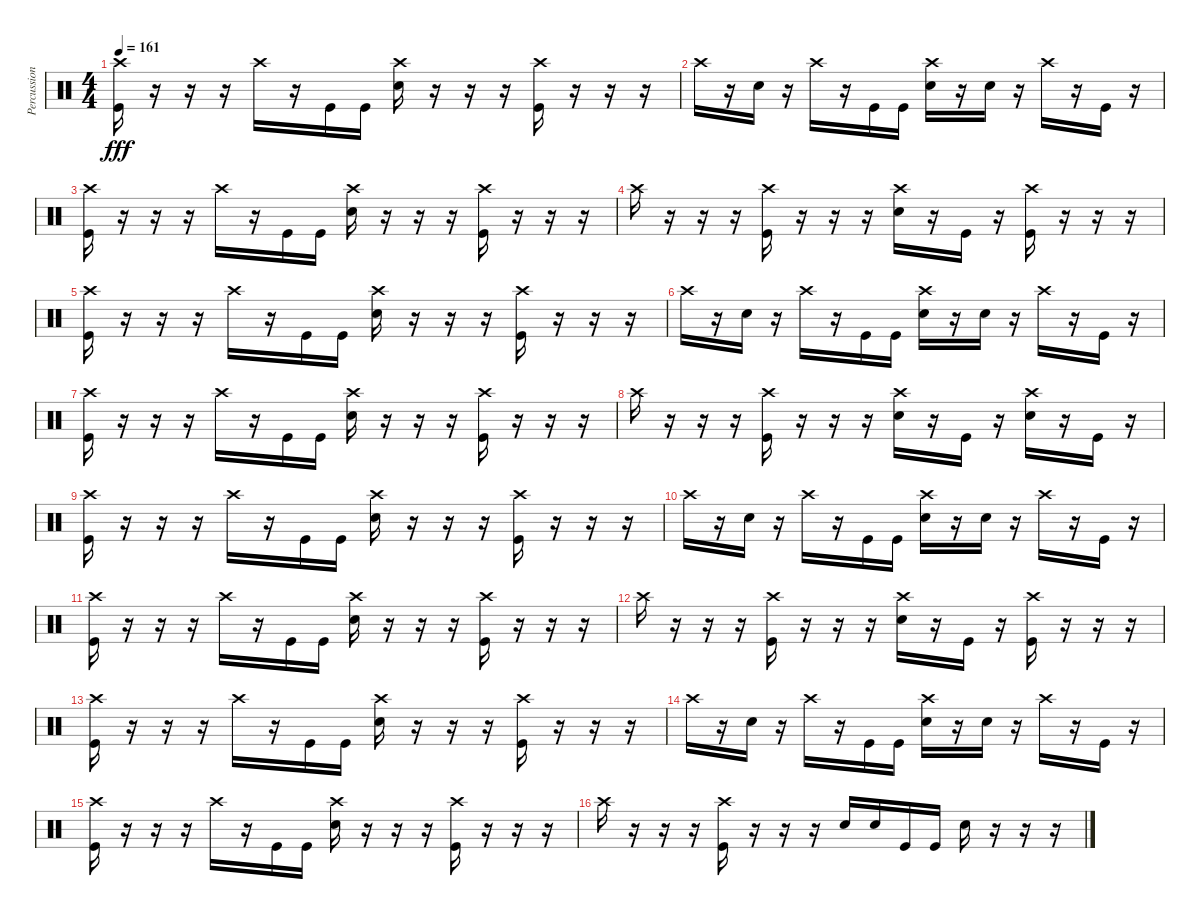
\track ("Percussion" "Percussion") {instrument percussion}
\staff {score}
\articulation defaults
\ts (4 4)
\tempo 161
\clef neutral
\ks c
("Crash high (hit)" "Kick (hit)").16{dy fff} r.16 r.16 r.16 "Crash high (hit)".16 r.16 "Kick (hit)".16 "Kick (hit)".16 ("Crash high (hit)" "Electric Snare (hit)").16 r.16 r.16 r.16 ("Crash high (hit)" "Kick (hit)").16 r.16 r.16 r.16 |
"Crash high (hit)".16 r.16 "Electric Snare (hit)".16 r.16 "Crash high (hit)".16 r.16 "Kick (hit)".16 "Kick (hit)".16 ("Crash high (hit)" "Electric Snare (hit)").16 r.16 "Electric Snare (hit)".16 r.16 "Crash high (hit)".16 r.16 "Kick (hit)".16 r.16 |
("Crash high (hit)" "Kick (hit)").16 r.16 r.16 r.16 "Crash high (hit)".16 r.16 "Kick (hit)".16 "Kick (hit)".16 ("Crash high (hit)" "Electric Snare (hit)").16 r.16 r.16 r.16 ("Crash high (hit)" "Kick (hit)").16 r.16 r.16 r.16 |
"Crash high (hit)".16 r.16 r.16 r.16 ("Crash high (hit)" "Kick (hit)").16 r.16 r.16 r.16 ("Crash high (hit)" "Electric Snare (hit)").16 r.16 "Kick (hit)".16 r.16 ("Crash high (hit)" "Kick (hit)").16 r.16 r.16 r.16 |
("Crash high (hit)" "Kick (hit)").16 r.16 r.16 r.16 "Crash high (hit)".16 r.16 "Kick (hit)".16 "Kick (hit)".16 ("Crash high (hit)" "Electric Snare (hit)").16 r.16 r.16 r.16 ("Crash high (hit)" "Kick (hit)").16 r.16 r.16 r.16 |
"Crash high (hit)".16 r.16 "Electric Snare (hit)".16 r.16 "Crash high (hit)".16 r.16 "Kick (hit)".16 "Kick (hit)".16 ("Crash high (hit)" "Electric Snare (hit)").16 r.16 "Electric Snare (hit)".16 r.16 "Crash high (hit)".16 r.16 "Kick (hit)".16 r.16 |
("Crash high (hit)" "Kick (hit)").16 r.16 r.16 r.16 "Crash high (hit)".16 r.16 "Kick (hit)".16 "Kick (hit)".16 ("Crash high (hit)" "Electric Snare (hit)").16 r.16 r.16 r.16 ("Crash high (hit)" "Kick (hit)").16 r.16 r.16 r.16 |
"Crash high (hit)".16 r.16 r.16 r.16 ("Crash high (hit)" "Kick (hit)").16 r.16 r.16 r.16 ("Crash high (hit)" "Electric Snare (hit)").16 r.16 "Kick (hit)".16 r.16 ("Crash high (hit)" "Electric Snare (hit)").16 r.16 "Kick (hit)".16 r.16 |
("Crash high (hit)" "Kick (hit)").16 r.16 r.16 r.16 "Crash high (hit)".16 r.16 "Kick (hit)".16 "Kick (hit)".16 ("Crash high (hit)" "Electric Snare (hit)").16 r.16 r.16 r.16 ("Crash high (hit)" "Kick (hit)").16 r.16 r.16 r.16 |
"Crash high (hit)".16 r.16 "Electric Snare (hit)".16 r.16 "Crash high (hit)".16 r.16 "Kick (hit)".16 "Kick (hit)".16 ("Crash high (hit)" "Electric Snare (hit)").16 r.16 "Electric Snare (hit)".16 r.16 "Crash high (hit)".16 r.16 "Kick (hit)".16 r.16 |
("Crash high (hit)" "Kick (hit)").16 r.16 r.16 r.16 "Crash high (hit)".16 r.16 "Kick (hit)".16 "Kick (hit)".16 ("Crash high (hit)" "Electric Snare (hit)").16 r.16 r.16 r.16 ("Crash high (hit)" "Kick (hit)").16 r.16 r.16 r.16 |
"Crash high (hit)".16 r.16 r.16 r.16 ("Crash high (hit)" "Kick (hit)").16 r.16 r.16 r.16 ("Crash high (hit)" "Electric Snare (hit)").16 r.16 "Kick (hit)".16 r.16 ("Crash high (hit)" "Kick (hit)").16 r.16 r.16 r.16 |
("Crash high (hit)" "Kick (hit)").16 r.16 r.16 r.16 "Crash high (hit)".16 r.16 "Kick (hit)".16 "Kick (hit)".16 ("Crash high (hit)" "Electric Snare (hit)").16 r.16 r.16 r.16 ("Crash high (hit)" "Kick (hit)").16 r.16 r.16 r.16 |
"Crash high (hit)".16 r.16 "Electric Snare (hit)".16 r.16 "Crash high (hit)".16 r.16 "Kick (hit)".16 "Kick (hit)".16 ("Crash high (hit)" "Electric Snare (hit)").16 r.16 "Electric Snare (hit)".16 r.16 "Crash high (hit)".16 r.16 "Kick (hit)".16 r.16 |
("Crash high (hit)" "Kick (hit)").16 r.16 r.16 r.16 "Crash high (hit)".16 r.16 "Kick (hit)".16 "Kick (hit)".16 ("Crash high (hit)" "Electric Snare (hit)").16 r.16 r.16 r.16 ("Crash high (hit)" "Kick (hit)").16 r.16 r.16 r.16 |
"Crash high (hit)".16 r.16 r.16 r.16 ("Crash high (hit)" "Kick (hit)").16 r.16 r.16 r.16 "Electric Snare (hit)".16 "Electric Snare (hit)".16 "Kick (hit)".16 "Kick (hit)".16 "Electric Snare (hit)".16 r.16 r.16 r.16
